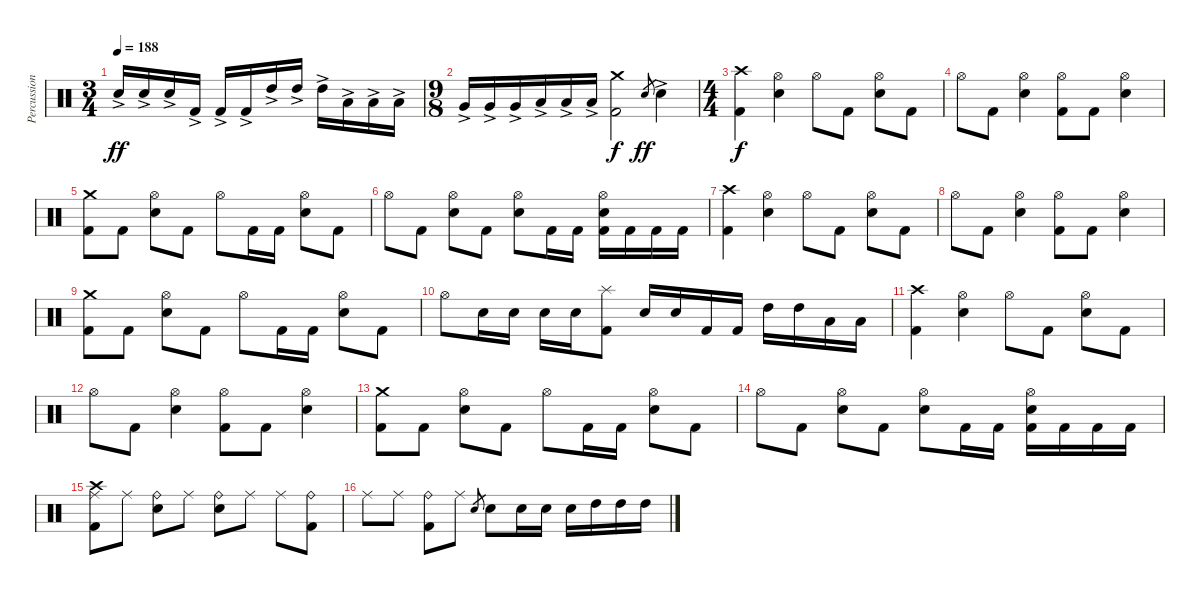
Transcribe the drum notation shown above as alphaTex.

\track ("Percussion" "Percussion") {instrument percussion}
\staff {score}
\articulation defaults
\ts (3 4)
\tempo 188
\clef neutral
\ks c "Electric Snare (hit)"{ac}.16{dy ff} "Electric Snare (hit)"{ac}.16 "Electric Snare (hit)"{ac}.16 "Kick (hit) 2"{ac}.16 "Kick (hit) 2"{ac}.16 "Kick (hit) 2"{ac}.16 "High Tom (hit)"{ac}.16 "High Tom (hit)"{ac}.16 "High Tom (hit)"{ac}.16 "Low Tom (hit)"{ac}.16 "Low Tom (hit)"{ac}.16 "Low Tom (hit)"{ac}.16
|
\ts (9 8)
"Very Low Tom (hit)"{ac}.16 "Very Low Tom (hit)"{ac}.16 "Very Low Tom (hit)"{ac}.16 "Low Floor Tom (hit)"{ac}.16 "Low Floor Tom (hit)"{ac}.16 "Low Floor Tom (hit)"{ac}.16 ("Crash medium (hit)" "Kick (hit) 2").2{dy f} "Electric Snare (hit)".8{gr dy ff} "Electric Snare (hit)"{ac}.4 |
\ts (4 4)
("Crash high (hit)" "Kick (hit) 2").4{dy f} ("Hi-Hat (open)" "Electric Snare (hit)").4 "Hi-Hat (open)".8 "Kick (hit) 2".8 ("Hi-Hat (open)" "Electric Snare (hit)").8 "Kick (hit) 2".8 |
"Hi-Hat (open)".8 "Kick (hit) 2".8 ("Hi-Hat (open)" "Electric Snare (hit)").4 ("Hi-Hat (open)" "Kick (hit) 2").8 "Kick (hit) 2".8 ("Hi-Hat (open)" "Electric Snare (hit)").4 |
("Crash medium (hit)" "Kick (hit) 2").8 "Kick (hit) 2".8 ("Hi-Hat (open)" "Electric Snare (hit)").8 "Kick (hit) 2".8 "Hi-Hat (open)".8 "Kick (hit) 2".16 "Kick (hit) 2".16 ("Hi-Hat (open)" "Electric Snare (hit)").8 "Kick (hit) 2".8 |
"Hi-Hat (open)".8 "Kick (hit) 2".8 ("Hi-Hat (open)" "Electric Snare (hit)").8 "Kick (hit) 2".8 ("Hi-Hat (open)" "Electric Snare (hit)").8 "Kick (hit) 2".16 "Kick (hit) 2".16 ("Hi-Hat (open)" "Electric Snare (hit)" "Kick (hit) 2").16 "Kick (hit) 2".16 "Kick (hit) 2".16 "Kick (hit) 2".16 |
("Crash high (hit)" "Kick (hit) 2").4 ("Hi-Hat (open)" "Electric Snare (hit)").4 "Hi-Hat (open)".8 "Kick (hit) 2".8 ("Hi-Hat (open)" "Electric Snare (hit)").8 "Kick (hit) 2".8 |
"Hi-Hat (open)".8 "Kick (hit) 2".8 ("Hi-Hat (open)" "Electric Snare (hit)").4 ("Hi-Hat (open)" "Kick (hit) 2").8 "Kick (hit) 2".8 ("Hi-Hat (open)" "Electric Snare (hit)").4 |
("Crash medium (hit)" "Kick (hit) 2").8 "Kick (hit) 2".8 ("Hi-Hat (open)" "Electric Snare (hit)").8 "Kick (hit) 2".8 "Hi-Hat (open)".8 "Kick (hit) 2".16 "Kick (hit) 2".16 ("Hi-Hat (open)" "Electric Snare (hit)").8 "Kick (hit) 2".8 |
"Hi-Hat (open)".8 "Electric Snare (hit)".16 "Electric Snare (hit)".16 "Electric Snare (hit)".16 "Electric Snare (hit)".16 ("Splash (hit)" "Kick (hit) 2").8 "Electric Snare (hit)".16 "Electric Snare (hit)".16 "Kick (hit) 2".16 "Kick (hit) 2".16 "High Tom (hit)".16 "High Tom (hit)".16 "Low Tom (hit)".16 "Low Tom (hit)".16 |
("Crash high (hit)" "Kick (hit) 2").4 ("Hi-Hat (open)" "Electric Snare (hit)").4 "Hi-Hat (open)".8 "Kick (hit) 2".8 ("Hi-Hat (open)" "Electric Snare (hit)").8 "Kick (hit) 2".8 |
"Hi-Hat (open)".8 "Kick (hit) 2".8 ("Hi-Hat (open)" "Electric Snare (hit)").4 ("Hi-Hat (open)" "Kick (hit) 2").8 "Kick (hit) 2".8 ("Hi-Hat (open)" "Electric Snare (hit)").4 |
("Crash medium (hit)" "Kick (hit) 2").8 "Kick (hit) 2".8 ("Hi-Hat (open)" "Electric Snare (hit)").8 "Kick (hit) 2".8 "Hi-Hat (open)".8 "Kick (hit) 2".16 "Kick (hit) 2".16 ("Hi-Hat (open)" "Electric Snare (hit)").8 "Kick (hit) 2".8 |
"Hi-Hat (open)".8 "Kick (hit) 2".8 ("Hi-Hat (open)" "Electric Snare (hit)").8 "Kick (hit) 2".8 ("Hi-Hat (open)" "Electric Snare (hit)").8 "Kick (hit) 2".16 "Kick (hit) 2".16 ("Hi-Hat (open)" "Electric Snare (hit)" "Kick (hit) 2").16 "Kick (hit) 2".16 "Kick (hit) 2".16 "Kick (hit) 2".16 |
("Ride (middle)" "Crash high (hit)" "Kick (hit) 2").8 "Ride (middle)".8 ("Ride (bell)" "Electric Snare (hit)").8 "Ride (middle)".8 ("Ride (bell)" "Electric Snare (hit)").8 "Ride (middle)".8 "Ride (middle)".8 ("Ride (bell)" "Kick (hit) 2").8 |
"Ride (middle)".8 "Ride (middle)".8 ("Ride (bell)" "Kick (hit) 2").8 "Ride (middle)".8 "Electric Snare (hit)".8{gr} "Electric Snare (hit)".8 "Electric Snare (hit)".16 "Electric Snare (hit)".16 "Electric Snare (hit)".16 "High Tom (hit)".16 "High Tom (hit)".16 "High Tom (hit)".16
